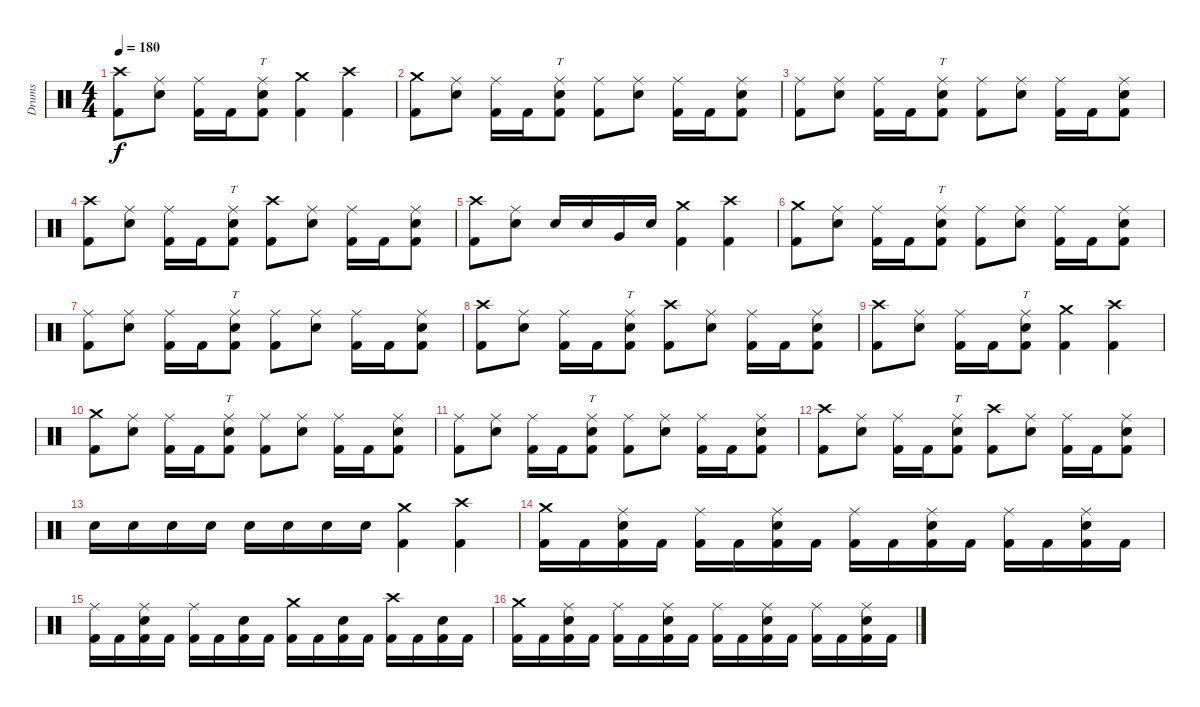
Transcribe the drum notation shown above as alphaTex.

\track ("Drums" "Drums") {instrument percussion}
\staff {score}
\articulation defaults
\ts (4 4)
\tempo 180
\clef neutral
\ks c
("Crash high (hit)" "Kick (hit) 2").8{dy f} ("Ride (middle)" "Electric Snare (hit)").8 ("Ride (middle)" "Kick (hit) 2").16 "Kick (hit) 2".16 ("Ride (middle)" "Electric Snare (hit)" "Kick (hit) 2").8{tt} ("Crash medium (hit)" "Kick (hit) 2").4 ("Crash high (hit)" "Kick (hit) 2").4 |
("Crash medium (hit)" "Kick (hit) 2").8 ("Ride (middle)" "Electric Snare (hit)").8 ("Ride (middle)" "Kick (hit) 2").16 "Kick (hit) 2".16 ("Ride (middle)" "Electric Snare (hit)" "Kick (hit) 2").8{tt} ("Ride (middle)" "Kick (hit) 2").8 ("Ride (middle)" "Electric Snare (hit)").8 ("Ride (middle)" "Kick (hit) 2").16 "Kick (hit) 2".16 ("Ride (middle)" "Electric Snare (hit)" "Kick (hit) 2").8 |
("Ride (middle)" "Kick (hit) 2").8 ("Ride (middle)" "Electric Snare (hit)").8 ("Ride (middle)" "Kick (hit) 2").16 "Kick (hit) 2".16 ("Ride (middle)" "Electric Snare (hit)" "Kick (hit) 2").8{tt} ("Ride (middle)" "Kick (hit) 2").8 ("Ride (middle)" "Electric Snare (hit)").8 ("Ride (middle)" "Kick (hit) 2").16 "Kick (hit) 2".16 ("Ride (middle)" "Electric Snare (hit)" "Kick (hit) 2").8 |
("Crash high (hit)" "Kick (hit) 2").8 ("Ride (middle)" "Electric Snare (hit)").8 ("Ride (middle)" "Kick (hit) 2").16 "Kick (hit) 2".16 ("Ride (middle)" "Electric Snare (hit)" "Kick (hit) 2").8{tt} ("Crash high (hit)" "Kick (hit) 2").8 ("Ride (middle)" "Electric Snare (hit)").8 ("Ride (middle)" "Kick (hit) 2").16 "Kick (hit) 2".16 ("Ride (middle)" "Electric Snare (hit)" "Kick (hit) 2").8 |
("Crash high (hit)" "Kick (hit) 2").8 ("Ride (middle)" "Electric Snare (hit)").8 "Electric Snare (hit)".16 "Electric Snare (hit)".16 "Very Low Tom (hit)".16 "Electric Snare (hit)".16 ("Crash medium (hit)" "Kick (hit) 2").4 ("Crash high (hit)" "Kick (hit) 2").4 |
("Crash medium (hit)" "Kick (hit) 2").8 ("Ride (middle)" "Electric Snare (hit)").8 ("Ride (middle)" "Kick (hit) 2").16 "Kick (hit) 2".16 ("Ride (middle)" "Electric Snare (hit)" "Kick (hit) 2").8{tt} ("Ride (middle)" "Kick (hit) 2").8 ("Ride (middle)" "Electric Snare (hit)").8 ("Ride (middle)" "Kick (hit) 2").16 "Kick (hit) 2".16 ("Ride (middle)" "Electric Snare (hit)" "Kick (hit) 2").8 |
("Ride (middle)" "Kick (hit) 2").8 ("Ride (middle)" "Electric Snare (hit)").8 ("Ride (middle)" "Kick (hit) 2").16 "Kick (hit) 2".16 ("Ride (middle)" "Electric Snare (hit)" "Kick (hit) 2").8{tt} ("Ride (middle)" "Kick (hit) 2").8 ("Ride (middle)" "Electric Snare (hit)").8 ("Ride (middle)" "Kick (hit) 2").16 "Kick (hit) 2".16 ("Ride (middle)" "Electric Snare (hit)" "Kick (hit) 2").8 |
("Crash high (hit)" "Kick (hit) 2").8 ("Ride (middle)" "Electric Snare (hit)").8 ("Ride (middle)" "Kick (hit) 2").16 "Kick (hit) 2".16 ("Ride (middle)" "Electric Snare (hit)" "Kick (hit) 2").8{tt} ("Crash high (hit)" "Kick (hit) 2").8 ("Ride (middle)" "Electric Snare (hit)").8 ("Ride (middle)" "Kick (hit) 2").16 "Kick (hit) 2".16 ("Ride (middle)" "Electric Snare (hit)" "Kick (hit) 2").8 |
("Crash high (hit)" "Kick (hit) 2").8 ("Ride (middle)" "Electric Snare (hit)").8 ("Ride (middle)" "Kick (hit) 2").16 "Kick (hit) 2".16 ("Ride (middle)" "Electric Snare (hit)" "Kick (hit) 2").8{tt} ("Crash medium (hit)" "Kick (hit) 2").4 ("Crash high (hit)" "Kick (hit) 2").4 |
("Crash medium (hit)" "Kick (hit) 2").8 ("Ride (middle)" "Electric Snare (hit)").8 ("Ride (middle)" "Kick (hit) 2").16 "Kick (hit) 2".16 ("Ride (middle)" "Electric Snare (hit)" "Kick (hit) 2").8{tt} ("Ride (middle)" "Kick (hit) 2").8 ("Ride (middle)" "Electric Snare (hit)").8 ("Ride (middle)" "Kick (hit) 2").16 "Kick (hit) 2".16 ("Ride (middle)" "Electric Snare (hit)" "Kick (hit) 2").8 |
("Ride (middle)" "Kick (hit) 2").8 ("Ride (middle)" "Electric Snare (hit)").8 ("Ride (middle)" "Kick (hit) 2").16 "Kick (hit) 2".16 ("Ride (middle)" "Electric Snare (hit)" "Kick (hit) 2").8{tt} ("Ride (middle)" "Kick (hit) 2").8 ("Ride (middle)" "Electric Snare (hit)").8 ("Ride (middle)" "Kick (hit) 2").16 "Kick (hit) 2".16 ("Ride (middle)" "Electric Snare (hit)" "Kick (hit) 2").8 |
("Crash high (hit)" "Kick (hit) 2").8 ("Ride (middle)" "Electric Snare (hit)").8 ("Ride (middle)" "Kick (hit) 2").16 "Kick (hit) 2".16 ("Ride (middle)" "Electric Snare (hit)" "Kick (hit) 2").8{tt} ("Crash high (hit)" "Kick (hit) 2").8 ("Ride (middle)" "Electric Snare (hit)").8 ("Ride (middle)" "Kick (hit) 2").16 "Kick (hit) 2".16 ("Ride (middle)" "Electric Snare (hit)" "Kick (hit) 2").8 |
"Electric Snare (hit)".16 "Electric Snare (hit)".16 "Electric Snare (hit)".16 "Electric Snare (hit)".16 "Electric Snare (hit)".16 "Electric Snare (hit)".16 "Electric Snare (hit)".16 "Electric Snare (hit)".16 ("Crash medium (hit)" "Kick (hit) 2").4 ("Crash high (hit)" "Kick (hit) 2").4 |
("Crash medium (hit)" "Kick (hit) 2").16 "Kick (hit) 2".16 ("Ride (middle)" "Electric Snare (hit)" "Kick (hit) 2").16 "Kick (hit) 2".16 ("Ride (middle)" "Kick (hit) 2").16 "Kick (hit) 2".16 ("Ride (middle)" "Electric Snare (hit)" "Kick (hit) 2").16 "Kick (hit) 2".16 ("Ride (middle)" "Kick (hit) 2").16 "Kick (hit) 2".16 ("Ride (middle)" "Electric Snare (hit)" "Kick (hit) 2").16 "Kick (hit) 2".16 ("Ride (middle)" "Kick (hit) 2").16 "Kick (hit) 2".16 ("Ride (middle)" "Electric Snare (hit)" "Kick (hit) 2").16 "Kick (hit) 2".16 |
("Ride (middle)" "Kick (hit) 2").16 "Kick (hit) 2".16 ("Ride (middle)" "Electric Snare (hit)" "Kick (hit) 2").16 "Kick (hit) 2".16 ("Ride (middle)" "Kick (hit) 2").16 "Kick (hit) 2".16 ("Electric Snare (hit)" "Kick (hit) 2").16 "Kick (hit) 2".16 ("Crash medium (hit)" "Kick (hit) 2").16 "Kick (hit) 2".16 ("Electric Snare (hit)" "Kick (hit) 2").16 "Kick (hit) 2".16 ("Crash high (hit)" "Kick (hit) 2").16 "Kick (hit) 2".16 ("Electric Snare (hit)" "Kick (hit) 2").16 "Kick (hit) 2".16 |
("Crash medium (hit)" "Kick (hit) 2").16 "Kick (hit) 2".16 ("Ride (middle)" "Electric Snare (hit)" "Kick (hit) 2").16 "Kick (hit) 2".16 ("Ride (middle)" "Kick (hit) 2").16 "Kick (hit) 2".16 ("Ride (middle)" "Electric Snare (hit)" "Kick (hit) 2").16 "Kick (hit) 2".16 ("Ride (middle)" "Kick (hit) 2").16 "Kick (hit) 2".16 ("Ride (middle)" "Electric Snare (hit)" "Kick (hit) 2").16 "Kick (hit) 2".16 ("Ride (middle)" "Kick (hit) 2").16 "Kick (hit) 2".16 ("Ride (middle)" "Electric Snare (hit)" "Kick (hit) 2").16 "Kick (hit) 2".16
